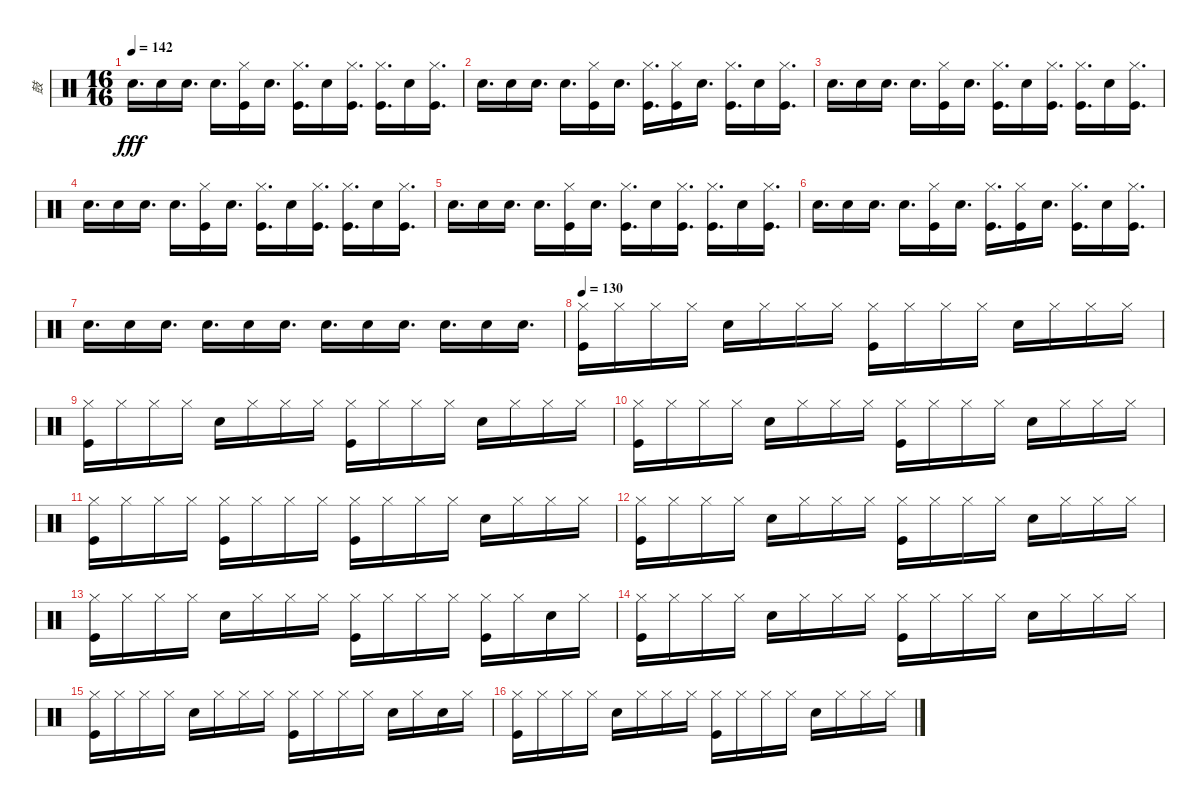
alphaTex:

\track ("鼓" "鼓") {instrument percussion}
\staff {score}
\articulation defaults
\ts (16 16)
\tempo 142
\clef neutral
\ks c "Snare (hit) 2".16{d dy fff} "Snare (hit) 2".16 "Snare (hit) 2".16{d} "Snare (hit) 2".16{d}
("Kick (hit)" "Hi-Hat (closed)").16 "Snare (hit) 2".16{d} ("Hi-Hat (closed)" "Kick (hit)").16{d} "Snare (hit) 2".16 ("Hi-Hat (closed)" "Kick (hit)").16{d} ("Hi-Hat (closed)" "Kick (hit)").16{d} "Snare (hit) 2".16 ("Hi-Hat (closed)" "Kick (hit)").16{d} |
"Snare (hit) 2".16{d} "Snare (hit) 2".16 "Snare (hit) 2".16{d} "Snare (hit) 2".16{d} ("Kick (hit)" "Hi-Hat (closed)").16 "Snare (hit) 2".16{d} ("Hi-Hat (closed)" "Kick (hit)").16{d} ("Kick (hit)" "Hi-Hat (closed)").16 "Snare (hit) 2".16{d} ("Hi-Hat (closed)" "Kick (hit)").16{d} "Snare (hit) 2".16 ("Hi-Hat (closed)" "Kick (hit)").16{d} |
"Snare (hit) 2".16{d} "Snare (hit) 2".16 "Snare (hit) 2".16{d} "Snare (hit) 2".16{d} ("Kick (hit)" "Hi-Hat (closed)").16 "Snare (hit) 2".16{d} ("Hi-Hat (closed)" "Kick (hit)").16{d} "Snare (hit) 2".16 ("Hi-Hat (closed)" "Kick (hit)").16{d} ("Hi-Hat (closed)" "Kick (hit)").16{d} "Snare (hit) 2".16 ("Hi-Hat (closed)" "Kick (hit)").16{d} |
"Snare (hit) 2".16{d} "Snare (hit) 2".16 "Snare (hit) 2".16{d} "Snare (hit) 2".16{d} ("Kick (hit)" "Hi-Hat (closed)").16 "Snare (hit) 2".16{d} ("Hi-Hat (closed)" "Kick (hit)").16{d} "Snare (hit) 2".16 ("Hi-Hat (closed)" "Kick (hit)").16{d} ("Hi-Hat (closed)" "Kick (hit)").16{d} "Snare (hit) 2".16 ("Hi-Hat (closed)" "Kick (hit)").16{d} |
"Snare (hit) 2".16{d} "Snare (hit) 2".16 "Snare (hit) 2".16{d} "Snare (hit) 2".16{d} ("Kick (hit)" "Hi-Hat (closed)").16 "Snare (hit) 2".16{d} ("Hi-Hat (closed)" "Kick (hit)").16{d} "Snare (hit) 2".16 ("Hi-Hat (closed)" "Kick (hit)").16{d} ("Hi-Hat (closed)" "Kick (hit)").16{d} "Snare (hit) 2".16 ("Hi-Hat (closed)" "Kick (hit)").16{d} |
"Snare (hit) 2".16{d} "Snare (hit) 2".16 "Snare (hit) 2".16{d} "Snare (hit) 2".16{d} ("Kick (hit)" "Hi-Hat (closed)").16 "Snare (hit) 2".16{d} ("Hi-Hat (closed)" "Kick (hit)").16{d} ("Kick (hit)" "Hi-Hat (closed)").16 "Snare (hit) 2".16{d} ("Hi-Hat (closed)" "Kick (hit)").16{d} "Snare (hit) 2".16 ("Hi-Hat (closed)" "Kick (hit)").16{d} |
"Snare (hit) 2".16{d} "Snare (hit) 2".16 "Snare (hit) 2".16{d} "Snare (hit) 2".16{d} "Snare (hit) 2".16 "Snare (hit) 2".16{d} "Snare (hit) 2".16{d} "Snare (hit) 2".16 "Snare (hit) 2".16{d} "Snare (hit) 2".16{d} "Snare (hit) 2".16 "Snare (hit) 2".16{d} |
\tempo 130
("Hi-Hat (closed)" "Kick (hit)").16 "Hi-Hat (closed)".16 "Hi-Hat (closed)".16 "Hi-Hat (closed)".16 "Snare (hit) 2".16 "Hi-Hat (closed)".16 "Hi-Hat (closed)".16 "Hi-Hat (closed)".16 ("Hi-Hat (closed)" "Kick (hit)").16 "Hi-Hat (closed)".16 "Hi-Hat (closed)".16 "Hi-Hat (closed)".16 "Snare (hit) 2".16 "Hi-Hat (closed)".16 "Hi-Hat (closed)".16 "Hi-Hat (closed)".16 |
("Hi-Hat (closed)" "Kick (hit)").16 "Hi-Hat (closed)".16 "Hi-Hat (closed)".16 "Hi-Hat (closed)".16 "Snare (hit) 2".16 "Hi-Hat (closed)".16 "Hi-Hat (closed)".16 "Hi-Hat (closed)".16 ("Hi-Hat (closed)" "Kick (hit)").16 "Hi-Hat (closed)".16 "Hi-Hat (closed)".16 "Hi-Hat (closed)".16 "Snare (hit) 2".16 "Hi-Hat (closed)".16 "Hi-Hat (closed)".16 "Hi-Hat (closed)".16 |
("Hi-Hat (closed)" "Kick (hit)").16 "Hi-Hat (closed)".16 "Hi-Hat (closed)".16 "Hi-Hat (closed)".16 "Snare (hit) 2".16 "Hi-Hat (closed)".16 "Hi-Hat (closed)".16 "Hi-Hat (closed)".16 ("Hi-Hat (closed)" "Kick (hit)").16 "Hi-Hat (closed)".16 "Hi-Hat (closed)".16 "Hi-Hat (closed)".16 "Snare (hit) 2".16 "Hi-Hat (closed)".16 "Hi-Hat (closed)".16 "Hi-Hat (closed)".16 |
("Hi-Hat (closed)" "Kick (hit)").16 "Hi-Hat (closed)".16 "Hi-Hat (closed)".16 "Hi-Hat (closed)".16 ("Hi-Hat (closed)" "Kick (hit)").16 "Hi-Hat (closed)".16 "Hi-Hat (closed)".16 "Hi-Hat (closed)".16 ("Hi-Hat (closed)" "Kick (hit)").16 "Hi-Hat (closed)".16 "Hi-Hat (closed)".16 "Hi-Hat (closed)".16 "Snare (hit) 2".16 "Hi-Hat (closed)".16 "Hi-Hat (closed)".16 "Hi-Hat (closed)".16 |
("Hi-Hat (closed)" "Kick (hit)").16 "Hi-Hat (closed)".16 "Hi-Hat (closed)".16 "Hi-Hat (closed)".16 "Snare (hit) 2".16 "Hi-Hat (closed)".16 "Hi-Hat (closed)".16 "Hi-Hat (closed)".16 ("Hi-Hat (closed)" "Kick (hit)").16 "Hi-Hat (closed)".16 "Hi-Hat (closed)".16 "Hi-Hat (closed)".16 "Snare (hit) 2".16 "Hi-Hat (closed)".16 "Hi-Hat (closed)".16 "Hi-Hat (closed)".16 |
("Hi-Hat (closed)" "Kick (hit)").16 "Hi-Hat (closed)".16 "Hi-Hat (closed)".16 "Hi-Hat (closed)".16 "Snare (hit) 2".16 "Hi-Hat (closed)".16 "Hi-Hat (closed)".16 "Hi-Hat (closed)".16 ("Hi-Hat (closed)" "Kick (hit)").16 "Hi-Hat (closed)".16 "Hi-Hat (closed)".16 "Hi-Hat (closed)".16 ("Kick (hit)" "Hi-Hat (closed)").16 "Hi-Hat (closed)".16 "Snare (hit) 2".16 "Hi-Hat (closed)".16 |
("Hi-Hat (closed)" "Kick (hit)").16 "Hi-Hat (closed)".16 "Hi-Hat (closed)".16 "Hi-Hat (closed)".16 "Snare (hit) 2".16 "Hi-Hat (closed)".16 "Hi-Hat (closed)".16 "Hi-Hat (closed)".16 ("Hi-Hat (closed)" "Kick (hit)").16 "Hi-Hat (closed)".16 "Hi-Hat (closed)".16 "Hi-Hat (closed)".16 "Snare (hit) 2".16 "Hi-Hat (closed)".16 "Hi-Hat (closed)".16 "Hi-Hat (closed)".16 |
("Hi-Hat (closed)" "Kick (hit)").16 "Hi-Hat (closed)".16 "Hi-Hat (closed)".16 "Hi-Hat (closed)".16 "Snare (hit) 2".16 "Hi-Hat (closed)".16 "Hi-Hat (closed)".16 "Hi-Hat (closed)".16 ("Hi-Hat (closed)" "Kick (hit)").16 "Hi-Hat (closed)".16 "Hi-Hat (closed)".16 "Hi-Hat (closed)".16 "Snare (hit) 2".16 "Hi-Hat (closed)".16 "Snare (hit) 2".16 "Hi-Hat (closed)".16 |
("Hi-Hat (closed)" "Kick (hit)").16 "Hi-Hat (closed)".16 "Hi-Hat (closed)".16 "Hi-Hat (closed)".16 "Snare (hit) 2".16 "Hi-Hat (closed)".16 "Hi-Hat (closed)".16 "Hi-Hat (closed)".16 ("Hi-Hat (closed)" "Kick (hit)").16 "Hi-Hat (closed)".16 "Hi-Hat (closed)".16 "Hi-Hat (closed)".16 "Snare (hit) 2".16 "Hi-Hat (closed)".16 "Hi-Hat (closed)".16 "Hi-Hat (closed)".16
